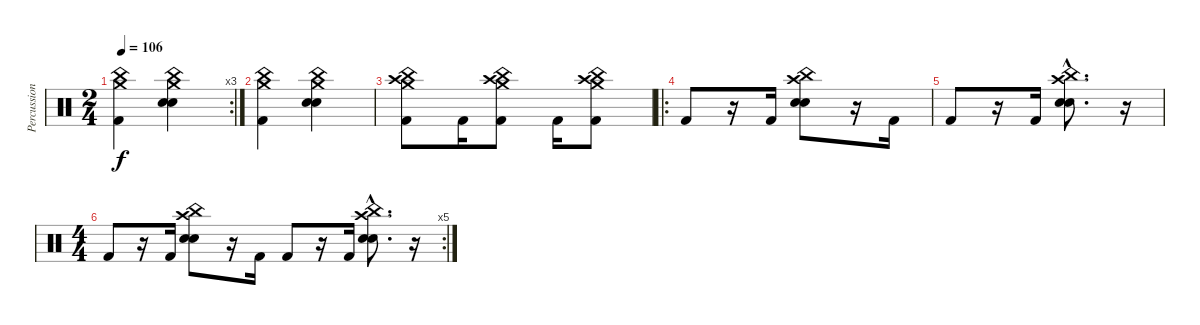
\track ("Percussions" "Percussion") {instrument percussion}
\staff {score}
\articulation defaults
\rc 3
\ts (2 4)
\tempo 106
\clef neutral
\ks c
("China (hit)" "Kick (hit) 2" "Crash medium (hit)").4{dy f} ("China (hit)" "Electric Snare (hit)" "Crash medium (hit)" "Snare (hit) 2").4 |
("China (hit)" "Kick (hit) 2" "Crash medium (hit)").4 ("China (hit)" "Electric Snare (hit)" "Crash medium (hit)" "Snare (hit) 2").4 |
("China (hit)" "Crash high (hit)" "Crash medium (hit)" "Kick (hit) 2").8 "Kick (hit) 2".16 ("China (hit)" "Crash high (hit)" "Crash medium (hit)" "Kick (hit) 2").8 "Kick (hit) 2".16 ("China (hit)" "Crash high (hit)" "Crash medium (hit)" "Kick (hit) 2").8 |
\ro "Kick (hit) 2".8
r.16 "Kick (hit) 2".16 ("Snare (hit) 2" "Crash high (hit)" "China (hit)" "Electric Snare (hit)").8 r.16 "Kick (hit) 2".16 |
"Kick (hit) 2".8 r.16 "Kick (hit) 2".16 ("Snare (hit) 2"{hac} "China (hit)"{hac} "Crash high (hit)"{hac} "Electric Snare (hit)"{hac}).8{d} r.16 |
\rc 5
\ts (4 4)
"Kick (hit) 2".8 r.16 "Kick (hit) 2".16 ("Snare (hit) 2" "China (hit)" "Crash high (hit)" "Electric Snare (hit)").8 r.16 "Kick (hit) 2".16 "Kick (hit) 2".8 r.16 "Kick (hit) 2".16 ("Snare (hit) 2"{hac} "China (hit)"{hac} "Crash high (hit)"{hac} "Electric Snare (hit)"{hac}).8{d} r.16
